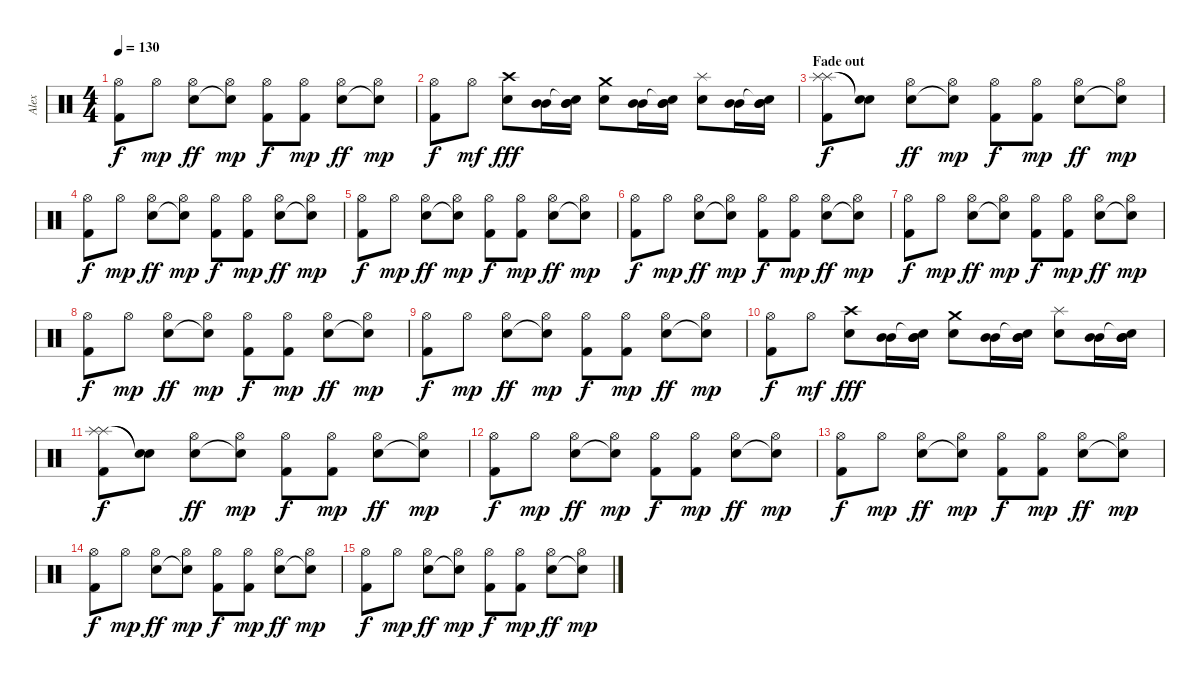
\track ("Alex" "Alex") {instrument percussion}
\staff {score}
\articulation defaults
\ts (4 4)
\tempo 130
\clef neutral
\ks c
("Hi-Hat (open)" "Kick (hit) 2").8{dy f} "Hi-Hat (open)".8{dy mp} ("Hi-Hat (open)" "Electric Snare (hit)").8{dy ff} ("Hi-Hat (open)" "Snare (hit)"{t}).8{dy mp} ("Hi-Hat (open)" "Kick (hit) 2").8{dy f} ("Hi-Hat (open)" "Kick (hit) 2").8{dy mp} ("Hi-Hat (open)" "Electric Snare (hit)").8{dy ff} ("Hi-Hat (open)" "Snare (hit)"{t}).8{dy mp} |
("Hi-Hat (open)" "Kick (hit) 2").8{dy f} "Hi-Hat (open)".8{dy mf} ("Crash high (hit)" "Electric Snare (hit)").8{dy fff} ("Mid Tom (hit)" "Mid Tom (hit)").16 ("Snare (hit)"{t} "Mid Tom (hit)" "Mid Tom (hit)").16 ("Crash medium (hit)" "Electric Snare (hit)").8 ("Mid Tom (hit)" "Mid Tom (hit)").16 ("Snare (hit)"{t} "Mid Tom (hit)" "Mid Tom (hit)").16 ("Splash (hit)" "Electric Snare (hit)").8 ("Mid Tom (hit)" "Mid Tom (hit)").16 ("Snare (hit)"{t} "Mid Tom (hit)" "Mid Tom (hit)").16 |
\section ("" "Fade out")
("Splash (hit)" "Splash (hit)" "Kick (hit) 2").8{dy f} ("Snare (hit)"{t} "Snare (hit)"{t}).8 ("Hi-Hat (open)" "Electric Snare (hit)").8{dy ff} ("Hi-Hat (open)" "Snare (hit)"{t}).8{dy mp} ("Hi-Hat (open)" "Kick (hit) 2").8{dy f} ("Hi-Hat (open)" "Kick (hit) 2").8{dy mp} ("Hi-Hat (open)" "Electric Snare (hit)").8{dy ff} ("Hi-Hat (open)" "Snare (hit)"{t}).8{dy mp} |
("Hi-Hat (open)" "Kick (hit) 2").8{dy f} "Hi-Hat (open)".8{dy mp} ("Hi-Hat (open)" "Electric Snare (hit)").8{dy ff} ("Hi-Hat (open)" "Snare (hit)"{t}).8{dy mp} ("Hi-Hat (open)" "Kick (hit) 2").8{dy f} ("Hi-Hat (open)" "Kick (hit) 2").8{dy mp} ("Hi-Hat (open)" "Electric Snare (hit)").8{dy ff} ("Hi-Hat (open)" "Snare (hit)"{t}).8{dy mp} |
("Hi-Hat (open)" "Kick (hit) 2").8{dy f} "Hi-Hat (open)".8{dy mp} ("Hi-Hat (open)" "Electric Snare (hit)").8{dy ff} ("Hi-Hat (open)" "Snare (hit)"{t}).8{dy mp} ("Hi-Hat (open)" "Kick (hit) 2").8{dy f} ("Hi-Hat (open)" "Kick (hit) 2").8{dy mp} ("Hi-Hat (open)" "Electric Snare (hit)").8{dy ff} ("Hi-Hat (open)" "Snare (hit)"{t}).8{dy mp} |
("Hi-Hat (open)" "Kick (hit) 2").8{dy f} "Hi-Hat (open)".8{dy mp} ("Hi-Hat (open)" "Electric Snare (hit)").8{dy ff} ("Hi-Hat (open)" "Snare (hit)"{t}).8{dy mp} ("Hi-Hat (open)" "Kick (hit) 2").8{dy f} ("Hi-Hat (open)" "Kick (hit) 2").8{dy mp} ("Hi-Hat (open)" "Electric Snare (hit)").8{dy ff} ("Hi-Hat (open)" "Snare (hit)"{t}).8{dy mp} |
("Hi-Hat (open)" "Kick (hit) 2").8{dy f} "Hi-Hat (open)".8{dy mp} ("Hi-Hat (open)" "Electric Snare (hit)").8{dy ff} ("Hi-Hat (open)" "Snare (hit)"{t}).8{dy mp} ("Hi-Hat (open)" "Kick (hit) 2").8{dy f} ("Hi-Hat (open)" "Kick (hit) 2").8{dy mp} ("Hi-Hat (open)" "Electric Snare (hit)").8{dy ff} ("Hi-Hat (open)" "Snare (hit)"{t}).8{dy mp} |
("Hi-Hat (open)" "Kick (hit) 2").8{dy f} "Hi-Hat (open)".8{dy mp} ("Hi-Hat (open)" "Electric Snare (hit)").8{dy ff} ("Hi-Hat (open)" "Snare (hit)"{t}).8{dy mp} ("Hi-Hat (open)" "Kick (hit) 2").8{dy f} ("Hi-Hat (open)" "Kick (hit) 2").8{dy mp} ("Hi-Hat (open)" "Electric Snare (hit)").8{dy ff} ("Hi-Hat (open)" "Snare (hit)"{t}).8{dy mp} |
("Hi-Hat (open)" "Kick (hit) 2").8{dy f} "Hi-Hat (open)".8{dy mp} ("Hi-Hat (open)" "Electric Snare (hit)").8{dy ff} ("Hi-Hat (open)" "Snare (hit)"{t}).8{dy mp} ("Hi-Hat (open)" "Kick (hit) 2").8{dy f} ("Hi-Hat (open)" "Kick (hit) 2").8{dy mp} ("Hi-Hat (open)" "Electric Snare (hit)").8{dy ff} ("Hi-Hat (open)" "Snare (hit)"{t}).8{dy mp} |
("Hi-Hat (open)" "Kick (hit) 2").8{dy f} "Hi-Hat (open)".8{dy mf} ("Crash high (hit)" "Electric Snare (hit)").8{dy fff} ("Mid Tom (hit)" "Mid Tom (hit)").16 ("Snare (hit)"{t} "Mid Tom (hit)" "Mid Tom (hit)").16 ("Crash medium (hit)" "Electric Snare (hit)").8 ("Mid Tom (hit)" "Mid Tom (hit)").16 ("Snare (hit)"{t} "Mid Tom (hit)" "Mid Tom (hit)").16 ("Splash (hit)" "Electric Snare (hit)").8 ("Mid Tom (hit)" "Mid Tom (hit)").16 ("Snare (hit)"{t} "Mid Tom (hit)" "Mid Tom (hit)").16 |
("Splash (hit)" "Splash (hit)" "Kick (hit) 2").8{dy f} ("Snare (hit)"{t} "Snare (hit)"{t}).8 ("Hi-Hat (open)" "Electric Snare (hit)").8{dy ff} ("Hi-Hat (open)" "Snare (hit)"{t}).8{dy mp} ("Hi-Hat (open)" "Kick (hit) 2").8{dy f} ("Hi-Hat (open)" "Kick (hit) 2").8{dy mp} ("Hi-Hat (open)" "Electric Snare (hit)").8{dy ff} ("Hi-Hat (open)" "Snare (hit)"{t}).8{dy mp} |
("Hi-Hat (open)" "Kick (hit) 2").8{dy f} "Hi-Hat (open)".8{dy mp} ("Hi-Hat (open)" "Electric Snare (hit)").8{dy ff} ("Hi-Hat (open)" "Snare (hit)"{t}).8{dy mp} ("Hi-Hat (open)" "Kick (hit) 2").8{dy f} ("Hi-Hat (open)" "Kick (hit) 2").8{dy mp} ("Hi-Hat (open)" "Electric Snare (hit)").8{dy ff} ("Hi-Hat (open)" "Snare (hit)"{t}).8{dy mp} |
("Hi-Hat (open)" "Kick (hit) 2").8{dy f} "Hi-Hat (open)".8{dy mp} ("Hi-Hat (open)" "Electric Snare (hit)").8{dy ff} ("Hi-Hat (open)" "Snare (hit)"{t}).8{dy mp} ("Hi-Hat (open)" "Kick (hit) 2").8{dy f} ("Hi-Hat (open)" "Kick (hit) 2").8{dy mp} ("Hi-Hat (open)" "Electric Snare (hit)").8{dy ff} ("Hi-Hat (open)" "Snare (hit)"{t}).8{dy mp} |
("Hi-Hat (open)" "Kick (hit) 2").8{dy f} "Hi-Hat (open)".8{dy mp} ("Hi-Hat (open)" "Electric Snare (hit)").8{dy ff} ("Hi-Hat (open)" "Snare (hit)"{t}).8{dy mp} ("Hi-Hat (open)" "Kick (hit) 2").8{dy f} ("Hi-Hat (open)" "Kick (hit) 2").8{dy mp} ("Hi-Hat (open)" "Electric Snare (hit)").8{dy ff} ("Hi-Hat (open)" "Snare (hit)"{t}).8{dy mp} |
("Hi-Hat (open)" "Kick (hit) 2").8{dy f} "Hi-Hat (open)".8{dy mp} ("Hi-Hat (open)" "Electric Snare (hit)").8{dy ff} ("Hi-Hat (open)" "Snare (hit)"{t}).8{dy mp} ("Hi-Hat (open)" "Kick (hit) 2").8{dy f} ("Hi-Hat (open)" "Kick (hit) 2").8{dy mp} ("Hi-Hat (open)" "Electric Snare (hit)").8{dy ff} ("Hi-Hat (open)" "Snare (hit)"{t}).8{dy mp}
